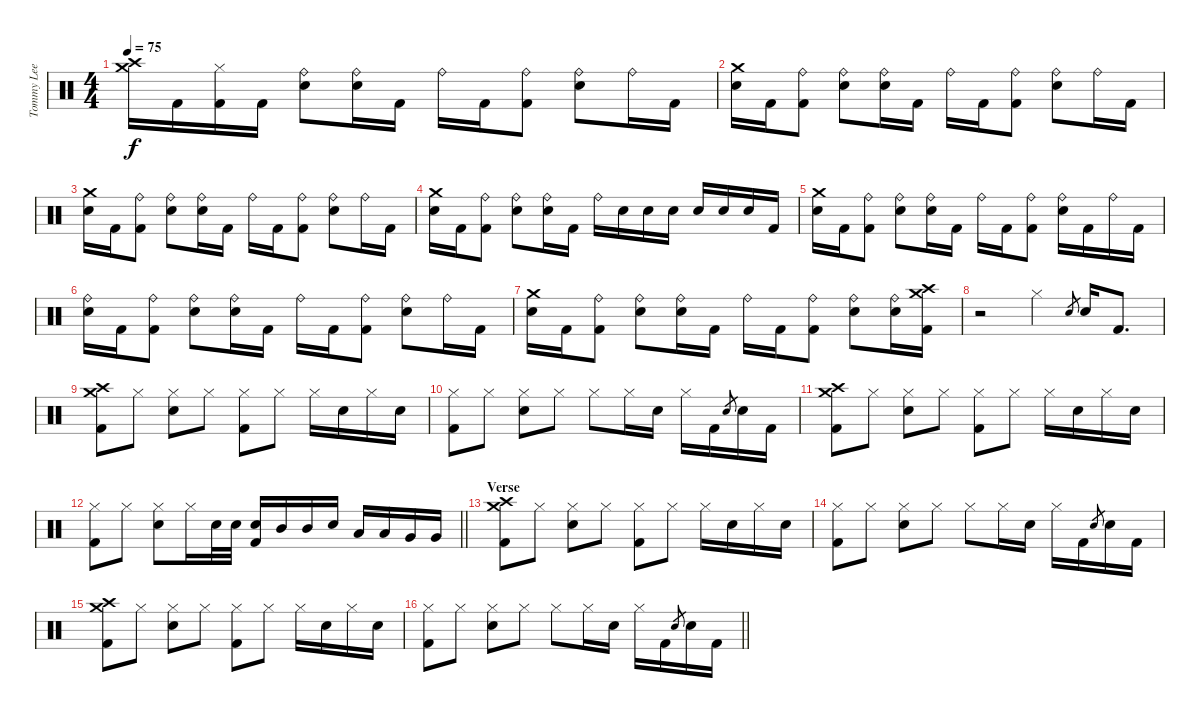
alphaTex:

\track ("Tommy Lee - Drums" "Tommy Lee ") {instrument percussion}
\staff {score}
\articulation defaults
\ts (4 4)
\tempo 75
\clef neutral
\ks c
("Crash medium (hit)" "Crash high (hit)").16{dy f} "Kick (hit) 2".16 ("Hi-Hat (closed)" "Kick (hit) 2").16 "Kick (hit) 2".16 ("Ride (bell)" "Snare (hit) 2").8 ("Ride (bell)" "Snare (hit) 2").16 "Kick (hit) 2".16 "Ride (bell)".16 "Kick (hit) 2".16 ("Ride (bell)" "Kick (hit) 2").8 ("Ride (bell)" "Snare (hit) 2").8 "Ride (bell)".16 "Kick (hit) 2".16 |
("Crash medium (hit)" "Snare (hit) 2").16 "Kick (hit) 2".16 ("Ride (bell)" "Kick (hit) 2").8 ("Ride (bell)" "Snare (hit) 2").8 ("Ride (bell)" "Snare (hit) 2").16 "Kick (hit) 2".16 "Ride (bell)".16 "Kick (hit) 2".16 ("Ride (bell)" "Kick (hit) 2").8 ("Ride (bell)" "Snare (hit) 2").8 "Ride (bell)".16 "Kick (hit) 2".16 |
("Crash medium (hit)" "Snare (hit) 2").16 "Kick (hit) 2".16 ("Ride (bell)" "Kick (hit) 2").8 ("Ride (bell)" "Snare (hit) 2").8 ("Ride (bell)" "Snare (hit) 2").16 "Kick (hit) 2".16 "Ride (bell)".16 "Kick (hit) 2".16 ("Ride (bell)" "Kick (hit) 2").8 ("Ride (bell)" "Snare (hit) 2").8 "Ride (bell)".16 "Kick (hit) 2".16 |
("Crash medium (hit)" "Snare (hit) 2").16 "Kick (hit) 2".16 ("Ride (bell)" "Kick (hit) 2").8 ("Ride (bell)" "Snare (hit) 2").8 ("Ride (bell)" "Snare (hit) 2").16 "Kick (hit) 2".16 "Ride (bell)".16 "Snare (hit) 2".16 "Snare (hit) 2".16 "Snare (hit) 2".16 "Snare (hit) 2".16 "Snare (hit) 2".16 "Snare (hit) 2".16 "Kick (hit) 2".16 |
("Crash medium (hit)" "Snare (hit) 2").16 "Kick (hit) 2".16 ("Ride (bell)" "Kick (hit) 2").8 ("Ride (bell)" "Snare (hit) 2").8 ("Ride (bell)" "Snare (hit) 2").16 "Kick (hit) 2".16 "Ride (bell)".16 "Kick (hit) 2".16 ("Ride (bell)" "Kick (hit) 2").8 ("Ride (bell)" "Snare (hit) 2").16 "Kick (hit) 2".16 "Ride (bell)".16 "Kick (hit) 2".16 |
("Ride (bell)" "Snare (hit) 2").16 "Kick (hit) 2".16 ("Ride (bell)" "Kick (hit) 2").8 ("Ride (bell)" "Snare (hit) 2").8 ("Ride (bell)" "Snare (hit) 2").16 "Kick (hit) 2".16 "Ride (bell)".16 "Kick (hit) 2".16 ("Ride (bell)" "Kick (hit) 2").8 ("Ride (bell)" "Snare (hit) 2").8 "Ride (bell)".16 "Kick (hit) 2".16 |
("Crash medium (hit)" "Snare (hit) 2").16 "Kick (hit) 2".16 ("Ride (bell)" "Kick (hit) 2").8 ("Ride (bell)" "Snare (hit) 2").8 ("Ride (bell)" "Snare (hit) 2").16 "Kick (hit) 2".16 "Ride (bell)".16 "Kick (hit) 2".16 ("Ride (bell)" "Kick (hit) 2").8 ("Ride (bell)" "Snare (hit) 2").8 ("Ride (bell)" "Snare (hit) 2").16 ("Crash medium (hit)" "Crash high (hit)" "Kick (hit) 2").16 |
r.2 "Hi-Hat (closed)".4 "Snare (hit) 2".8{gr} "Snare (hit) 2".16 "Kick (hit) 2".8{d} |
("Crash medium (hit)" "Crash high (hit)" "Kick (hit) 2").8 "Hi-Hat (closed)".8 ("Hi-Hat (closed)" "Snare (hit) 2").8 "Hi-Hat (closed)".8 ("Hi-Hat (closed)" "Kick (hit) 2").8 "Hi-Hat (closed)".8 "Hi-Hat (closed)".16 "Snare (hit) 2".16 "Hi-Hat (closed)".16 "Snare (hit) 2".16 |
("Hi-Hat (closed)" "Kick (hit) 2").8 "Hi-Hat (closed)".8 ("Hi-Hat (closed)" "Snare (hit) 2").8 "Hi-Hat (closed)".8 "Hi-Hat (closed)".8 "Hi-Hat (closed)".16 "Snare (hit) 2".16 "Hi-Hat (closed)".16 "Kick (hit) 2".16 "Snare (hit) 2".8{gr} "Snare (hit) 2".16 "Kick (hit) 2".16 |
("Crash medium (hit)" "Crash high (hit)" "Kick (hit) 2").8 "Hi-Hat (closed)".8 ("Hi-Hat (closed)" "Snare (hit) 2").8 "Hi-Hat (closed)".8 ("Hi-Hat (closed)" "Kick (hit) 2").8 "Hi-Hat (closed)".8 "Hi-Hat (closed)".16 "Snare (hit) 2".16 "Hi-Hat (closed)".16 "Snare (hit) 2".16 |
\barLineRight lightlight
("Hi-Hat (closed)" "Kick (hit) 2").8 "Hi-Hat (closed)".8 ("Hi-Hat (closed)" "Snare (hit) 2").8 "Hi-Hat (closed)".16 "Snare (hit) 2".32 "Snare (hit) 2".32 ("Snare (hit) 2" "Kick (hit) 2").16 "Mid Tom (hit)".16 "Mid Tom (hit)".16 "Snare (hit) 2".16 "Low Tom (hit)".16 "Low Tom (hit)".16 "Very Low Tom (hit)".16 "Very Low Tom (hit)".16 |
\section ("" "Verse")
("Crash medium (hit)" "Crash high (hit)" "Kick (hit) 2").8 "Hi-Hat (closed)".8 ("Hi-Hat (closed)" "Snare (hit) 2").8 "Hi-Hat (closed)".8 ("Hi-Hat (closed)" "Kick (hit) 2").8 "Hi-Hat (closed)".8 "Hi-Hat (closed)".16 "Snare (hit) 2".16 "Hi-Hat (closed)".16 "Snare (hit) 2".16 |
("Hi-Hat (closed)" "Kick (hit) 2").8 "Hi-Hat (closed)".8 ("Hi-Hat (closed)" "Snare (hit) 2").8 "Hi-Hat (closed)".8 "Hi-Hat (closed)".8 "Hi-Hat (closed)".16 "Snare (hit) 2".16 "Hi-Hat (closed)".16 "Kick (hit) 2".16 "Snare (hit) 2".8{gr} "Snare (hit) 2".16 "Kick (hit) 2".16 |
("Crash medium (hit)" "Crash high (hit)" "Kick (hit) 2").8 "Hi-Hat (closed)".8 ("Hi-Hat (closed)" "Snare (hit) 2").8 "Hi-Hat (closed)".8 ("Hi-Hat (closed)" "Kick (hit) 2").8 "Hi-Hat (closed)".8 "Hi-Hat (closed)".16 "Snare (hit) 2".16 "Hi-Hat (closed)".16 "Snare (hit) 2".16 |
\barLineRight lightlight
("Hi-Hat (closed)" "Kick (hit) 2").8 "Hi-Hat (closed)".8 ("Hi-Hat (closed)" "Snare (hit) 2").8 "Hi-Hat (closed)".8 "Hi-Hat (closed)".8 "Hi-Hat (closed)".16 "Snare (hit) 2".16 "Hi-Hat (closed)".16 "Kick (hit) 2".16 "Snare (hit) 2".8{gr} "Snare (hit) 2".16 "Kick (hit) 2".16
